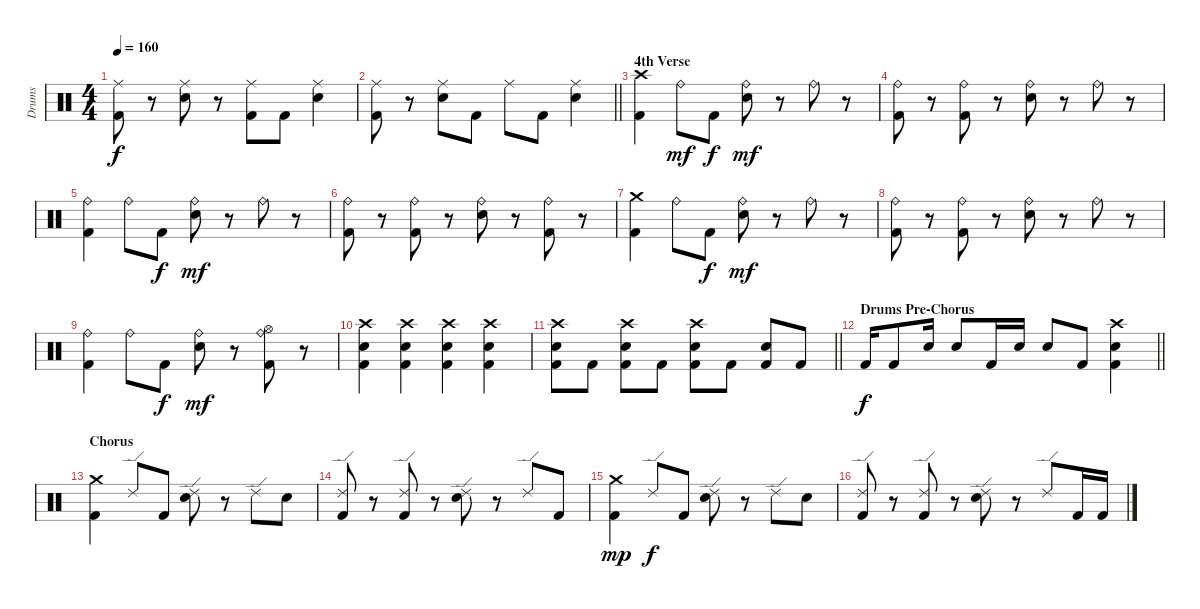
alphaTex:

\track ("Drums" "Drums") {instrument percussion}
\staff {score}
\articulation defaults
\ts (4 4)
\tempo 160
\clef neutral
\ks c
("Ride (middle)" "Kick (hit) 2").8{dy f} r.8 ("Ride (middle)" "Electric Snare (hit)").8 r.8 ("Ride (middle)" "Kick (hit) 2").8 "Kick (hit) 2".8 ("Ride (middle)" "Electric Snare (hit)").4 |
\barLineRight lightlight
("Ride (middle)" "Kick (hit) 2").8 r.8 ("Ride (middle)" "Electric Snare (hit)").8 "Kick (hit) 2".8 "Ride (middle)".8 "Kick (hit) 2".8 ("Ride (middle)" "Electric Snare (hit)").4 |
\section ("" "4th Verse")
("Crash high (hit)" "Kick (hit) 2").4 "Ride (bell)".8{dy mf} "Kick (hit) 2".8{dy f} ("Ride (bell)" "Electric Snare (hit)").8{dy mf} r.8 "Ride (bell)".8 r.8 |
("Ride (bell)" "Kick (hit) 2").8 r.8 ("Ride (bell)" "Kick (hit) 2").8 r.8 ("Ride (bell)" "Electric Snare (hit)").8 r.8 "Ride (bell)".8 r.8 |
("Ride (bell)" "Kick (hit) 2").4 "Ride (bell)".8 "Kick (hit) 2".8{dy f} ("Ride (bell)" "Electric Snare (hit)").8{dy mf} r.8 "Ride (bell)".8 r.8 |
("Ride (bell)" "Kick (hit) 2").8 r.8 ("Ride (bell)" "Kick (hit) 2").8 r.8 ("Ride (bell)" "Electric Snare (hit)").8 r.8 ("Ride (bell)" "Kick (hit) 2").8 r.8 |
("Crash medium (hit)" "Kick (hit) 2").4 "Ride (bell)".8 "Kick (hit) 2".8{dy f} ("Ride (bell)" "Electric Snare (hit)").8{dy mf} r.8 "Ride (bell)".8 r.8 |
("Ride (bell)" "Kick (hit) 2").8 r.8 ("Ride (bell)" "Kick (hit) 2").8 r.8 ("Ride (bell)" "Electric Snare (hit)").8 r.8 "Ride (bell)".8 r.8 |
("Ride (bell)" "Kick (hit) 2").4 "Ride (bell)".8 "Kick (hit) 2".8{dy f} ("Ride (bell)" "Electric Snare (hit)").8{dy mf} r.8 ("Ride (bell)" "Hi-Hat (open)" "Kick (hit) 2").8 r.8 |
("Crash high (hit)" "Electric Snare (hit)" "Kick (hit) 2").4 ("Crash high (hit)" "Electric Snare (hit)" "Kick (hit) 2").4 ("Crash high (hit)" "Electric Snare (hit)" "Kick (hit) 2").4 ("Crash high (hit)" "Electric Snare (hit)" "Kick (hit) 2").4 |
\barLineRight lightlight
("Crash high (hit)" "Electric Snare (hit)" "Kick (hit) 2").8 "Kick (hit) 2".8 ("Crash high (hit)" "Electric Snare (hit)" "Kick (hit) 2").8 "Kick (hit) 2".8 ("Crash high (hit)" "Electric Snare (hit)" "Kick (hit) 2").8 "Kick (hit) 2".8 ("Electric Snare (hit)" "Kick (hit) 2").8 "Kick (hit) 2".8 |
\section ("" "Drums Pre-Chorus")
\barLineRight lightlight "Kick (hit) 2".16{dy f} "Kick (hit) 2".8 "Electric Snare (hit)".16 "Electric Snare (hit)".8 "Kick (hit) 2".16 "Electric Snare (hit)".16 "Electric Snare (hit)".8 "Kick (hit) 2".8
("Crash high (hit)" "Electric Snare (hit)" "Kick (hit) 2").4 |
\section ("" "Chorus")
("Crash medium (hit)" "Kick (hit) 2").4 "Ride (edge) 2".8 "Kick (hit) 2".8 ("Ride (edge) 2" "Electric Snare (hit)").8 r.8 "Ride (edge) 2".8 "Electric Snare (hit)".8 |
("Ride (edge) 2" "Kick (hit) 2").8 r.8 ("Ride (edge) 2" "Kick (hit) 2").8 r.8 ("Ride (edge) 2" "Electric Snare (hit)").8 r.8 "Ride (edge) 2".8 "Kick (hit) 2".8 |
("Crash medium (hit)" "Kick (hit) 2").4{dy mp} "Ride (edge) 2".8{dy f} "Kick (hit) 2".8 ("Ride (edge) 2" "Electric Snare (hit)").8 r.8 "Ride (edge) 2".8 "Electric Snare (hit)".8 |
("Ride (edge) 2" "Kick (hit) 2").8 r.8 ("Ride (edge) 2" "Kick (hit) 2").8 r.8 ("Ride (edge) 2" "Electric Snare (hit)").8 r.8 "Ride (edge) 2".8 "Kick (hit) 2".16 "Kick (hit) 2".16
